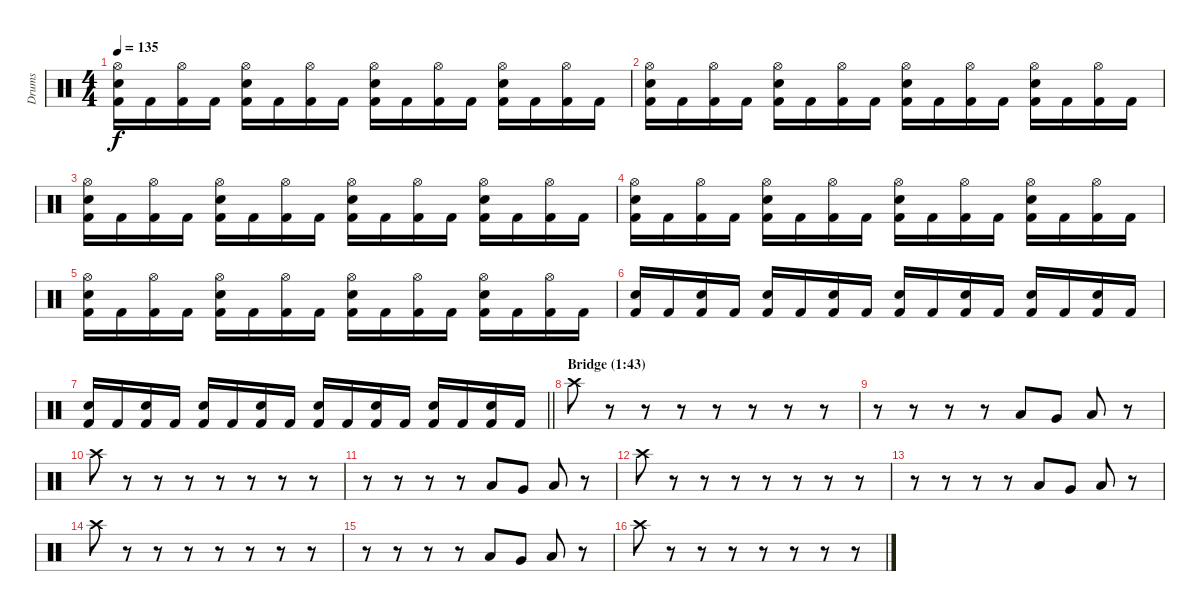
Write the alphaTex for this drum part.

\track ("Drums" "Drums") {instrument percussion}
\staff {score}
\articulation defaults
\ts (4 4)
\tempo 135
\clef neutral
\ks c
("Hi-Hat (open)" "Electric Snare (hit)" "Kick (hit) 2").16{dy f} "Kick (hit) 2".16 ("Hi-Hat (open)" "Kick (hit) 2").16 "Kick (hit) 2".16 ("Hi-Hat (open)" "Electric Snare (hit)" "Kick (hit) 2").16 "Kick (hit) 2".16 ("Hi-Hat (open)" "Kick (hit) 2").16 "Kick (hit) 2".16 ("Hi-Hat (open)" "Electric Snare (hit)" "Kick (hit) 2").16 "Kick (hit) 2".16 ("Hi-Hat (open)" "Kick (hit) 2").16 "Kick (hit) 2".16 ("Hi-Hat (open)" "Electric Snare (hit)" "Kick (hit) 2").16 "Kick (hit) 2".16 ("Hi-Hat (open)" "Kick (hit) 2").16 "Kick (hit) 2".16 |
("Hi-Hat (open)" "Electric Snare (hit)" "Kick (hit) 2").16 "Kick (hit) 2".16 ("Hi-Hat (open)" "Kick (hit) 2").16 "Kick (hit) 2".16 ("Hi-Hat (open)" "Electric Snare (hit)" "Kick (hit) 2").16 "Kick (hit) 2".16 ("Hi-Hat (open)" "Kick (hit) 2").16 "Kick (hit) 2".16 ("Hi-Hat (open)" "Electric Snare (hit)" "Kick (hit) 2").16 "Kick (hit) 2".16 ("Hi-Hat (open)" "Kick (hit) 2").16 "Kick (hit) 2".16 ("Hi-Hat (open)" "Electric Snare (hit)" "Kick (hit) 2").16 "Kick (hit) 2".16 ("Hi-Hat (open)" "Kick (hit) 2").16 "Kick (hit) 2".16 |
("Hi-Hat (open)" "Electric Snare (hit)" "Kick (hit) 2").16 "Kick (hit) 2".16 ("Hi-Hat (open)" "Kick (hit) 2").16 "Kick (hit) 2".16 ("Hi-Hat (open)" "Electric Snare (hit)" "Kick (hit) 2").16 "Kick (hit) 2".16 ("Hi-Hat (open)" "Kick (hit) 2").16 "Kick (hit) 2".16 ("Hi-Hat (open)" "Electric Snare (hit)" "Kick (hit) 2").16 "Kick (hit) 2".16 ("Hi-Hat (open)" "Kick (hit) 2").16 "Kick (hit) 2".16 ("Hi-Hat (open)" "Electric Snare (hit)" "Kick (hit) 2").16 "Kick (hit) 2".16 ("Hi-Hat (open)" "Kick (hit) 2").16 "Kick (hit) 2".16 |
("Hi-Hat (open)" "Electric Snare (hit)" "Kick (hit) 2").16 "Kick (hit) 2".16 ("Hi-Hat (open)" "Kick (hit) 2").16 "Kick (hit) 2".16 ("Hi-Hat (open)" "Electric Snare (hit)" "Kick (hit) 2").16 "Kick (hit) 2".16 ("Hi-Hat (open)" "Kick (hit) 2").16 "Kick (hit) 2".16 ("Hi-Hat (open)" "Electric Snare (hit)" "Kick (hit) 2").16 "Kick (hit) 2".16 ("Hi-Hat (open)" "Kick (hit) 2").16 "Kick (hit) 2".16 ("Hi-Hat (open)" "Electric Snare (hit)" "Kick (hit) 2").16 "Kick (hit) 2".16 ("Hi-Hat (open)" "Kick (hit) 2").16 "Kick (hit) 2".16 |
("Hi-Hat (open)" "Electric Snare (hit)" "Kick (hit) 2").16 "Kick (hit) 2".16 ("Hi-Hat (open)" "Kick (hit) 2").16 "Kick (hit) 2".16 ("Hi-Hat (open)" "Electric Snare (hit)" "Kick (hit) 2").16 "Kick (hit) 2".16 ("Hi-Hat (open)" "Kick (hit) 2").16 "Kick (hit) 2".16 ("Hi-Hat (open)" "Electric Snare (hit)" "Kick (hit) 2").16 "Kick (hit) 2".16 ("Hi-Hat (open)" "Kick (hit) 2").16 "Kick (hit) 2".16 ("Hi-Hat (open)" "Electric Snare (hit)" "Kick (hit) 2").16 "Kick (hit) 2".16 ("Hi-Hat (open)" "Kick (hit) 2").16 "Kick (hit) 2".16 |
("Electric Snare (hit)" "Kick (hit) 2").16 "Kick (hit) 2".16 ("Electric Snare (hit)" "Kick (hit) 2").16 "Kick (hit) 2".16 ("Electric Snare (hit)" "Kick (hit) 2").16 "Kick (hit) 2".16 ("Electric Snare (hit)" "Kick (hit) 2").16 "Kick (hit) 2".16 ("Electric Snare (hit)" "Kick (hit) 2").16 "Kick (hit) 2".16 ("Electric Snare (hit)" "Kick (hit) 2").16 "Kick (hit) 2".16 ("Electric Snare (hit)" "Kick (hit) 2").16 "Kick (hit) 2".16 ("Electric Snare (hit)" "Kick (hit) 2").16 "Kick (hit) 2".16 |
\barLineRight lightlight
("Electric Snare (hit)" "Kick (hit) 2").16 "Kick (hit) 2".16 ("Electric Snare (hit)" "Kick (hit) 2").16 "Kick (hit) 2".16 ("Electric Snare (hit)" "Kick (hit) 2").16 "Kick (hit) 2".16 ("Electric Snare (hit)" "Kick (hit) 2").16 "Kick (hit) 2".16 ("Electric Snare (hit)" "Kick (hit) 2").16 "Kick (hit) 2".16 ("Electric Snare (hit)" "Kick (hit) 2").16 "Kick (hit) 2".16 ("Electric Snare (hit)" "Kick (hit) 2").16 "Kick (hit) 2".16 ("Electric Snare (hit)" "Kick (hit) 2").16 "Kick (hit) 2".16 |
\section ("" "Bridge (1:43)")
"Crash high (hit)".8 r.8 r.8 r.8 r.8 r.8 r.8 r.8 |
r.8 r.8 r.8 r.8 "Low Tom (hit)".8 "Very Low Tom (hit)".8 "Low Floor Tom (hit)".8 r.8 |
"Crash high (hit)".8 r.8 r.8 r.8 r.8 r.8 r.8 r.8 |
r.8 r.8 r.8 r.8 "Low Tom (hit)".8 "Very Low Tom (hit)".8 "Low Floor Tom (hit)".8 r.8 |
"Crash high (hit)".8 r.8 r.8 r.8 r.8 r.8 r.8 r.8 |
r.8 r.8 r.8 r.8 "Low Tom (hit)".8 "Very Low Tom (hit)".8 "Low Floor Tom (hit)".8 r.8 |
"Crash high (hit)".8 r.8 r.8 r.8 r.8 r.8 r.8 r.8 |
r.8 r.8 r.8 r.8 "Low Tom (hit)".8 "Very Low Tom (hit)".8 "Low Floor Tom (hit)".8 r.8 |
"Crash high (hit)".8 r.8 r.8 r.8 r.8 r.8 r.8 r.8
